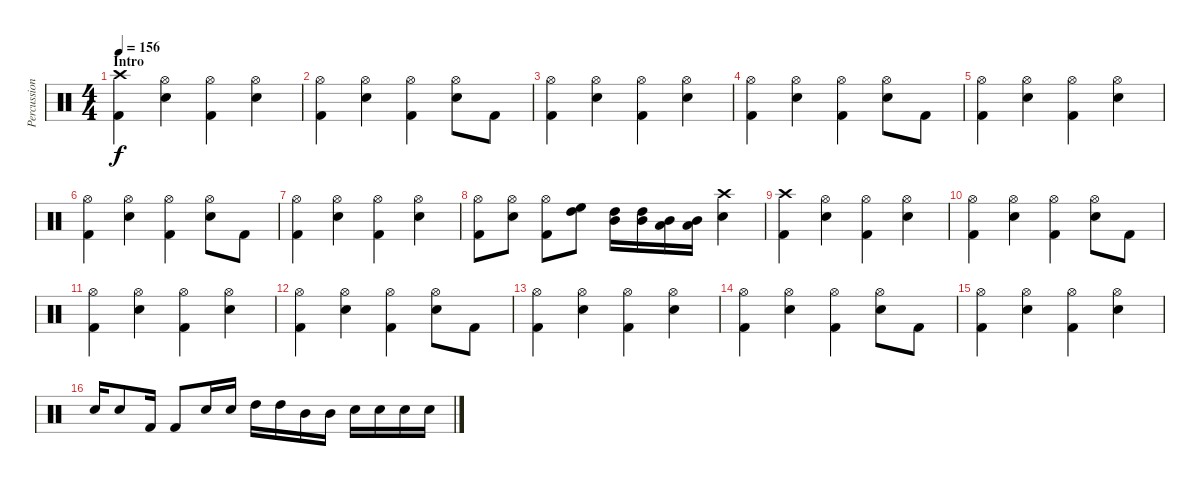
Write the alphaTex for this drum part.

\track ("Percussion" "Percussion") {instrument percussion}
\staff {score}
\articulation defaults
\ts (4 4)
\section ("" "Intro")
\tempo 156
\clef neutral
\ks c
("Crash high (hit)" "Kick (hit) 2").4{dy f} ("Hi-Hat (open)" "Electric Snare (hit)").4 ("Hi-Hat (open)" "Kick (hit) 2").4 ("Hi-Hat (open)" "Electric Snare (hit)").4 |
("Hi-Hat (open)" "Kick (hit) 2").4 ("Hi-Hat (open)" "Electric Snare (hit)").4 ("Hi-Hat (open)" "Kick (hit) 2").4 ("Hi-Hat (open)" "Electric Snare (hit)").8 "Kick (hit) 2".8 |
("Hi-Hat (open)" "Kick (hit) 2").4 ("Hi-Hat (open)" "Electric Snare (hit)").4 ("Hi-Hat (open)" "Kick (hit) 2").4 ("Hi-Hat (open)" "Electric Snare (hit)").4 |
("Hi-Hat (open)" "Kick (hit) 2").4 ("Hi-Hat (open)" "Electric Snare (hit)").4 ("Hi-Hat (open)" "Kick (hit) 2").4 ("Hi-Hat (open)" "Electric Snare (hit)").8 "Kick (hit) 2".8 |
("Hi-Hat (open)" "Kick (hit) 2").4 ("Hi-Hat (open)" "Electric Snare (hit)").4 ("Hi-Hat (open)" "Kick (hit) 2").4 ("Hi-Hat (open)" "Electric Snare (hit)").4 |
("Hi-Hat (open)" "Kick (hit) 2").4 ("Hi-Hat (open)" "Electric Snare (hit)").4 ("Hi-Hat (open)" "Kick (hit) 2").4 ("Hi-Hat (open)" "Electric Snare (hit)").8 "Kick (hit) 2".8 |
("Hi-Hat (open)" "Kick (hit) 2").4 ("Hi-Hat (open)" "Electric Snare (hit)").4 ("Hi-Hat (open)" "Kick (hit) 2").4 ("Hi-Hat (open)" "Electric Snare (hit)").4 |
("Hi-Hat (open)" "Kick (hit) 2").8 ("Hi-Hat (open)" "Electric Snare (hit)").8 ("Hi-Hat (open)" "Kick (hit) 2").8 ("High Floor Tom (hit)" "High Tom (hit)").8 ("High Tom (hit)" "Mid Tom (hit)").16 ("High Tom (hit)" "Mid Tom (hit)").16 ("Mid Tom (hit)" "Low Tom (hit)").16 ("Mid Tom (hit)" "Low Tom (hit)").16 ("Crash high (hit)" "Electric Snare (hit)").4 |
("Crash high (hit)" "Kick (hit) 2").4 ("Hi-Hat (open)" "Electric Snare (hit)").4 ("Hi-Hat (open)" "Kick (hit) 2").4 ("Hi-Hat (open)" "Electric Snare (hit)").4 |
("Hi-Hat (open)" "Kick (hit) 2").4 ("Hi-Hat (open)" "Electric Snare (hit)").4 ("Hi-Hat (open)" "Kick (hit) 2").4 ("Hi-Hat (open)" "Electric Snare (hit)").8 "Kick (hit) 2".8 |
("Hi-Hat (open)" "Kick (hit) 2").4 ("Hi-Hat (open)" "Electric Snare (hit)").4 ("Hi-Hat (open)" "Kick (hit) 2").4 ("Hi-Hat (open)" "Electric Snare (hit)").4 |
("Hi-Hat (open)" "Kick (hit) 2").4 ("Hi-Hat (open)" "Electric Snare (hit)").4 ("Hi-Hat (open)" "Kick (hit) 2").4 ("Hi-Hat (open)" "Electric Snare (hit)").8 "Kick (hit) 2".8 |
("Hi-Hat (open)" "Kick (hit) 2").4 ("Hi-Hat (open)" "Electric Snare (hit)").4 ("Hi-Hat (open)" "Kick (hit) 2").4 ("Hi-Hat (open)" "Electric Snare (hit)").4 |
("Hi-Hat (open)" "Kick (hit) 2").4 ("Hi-Hat (open)" "Electric Snare (hit)").4 ("Hi-Hat (open)" "Kick (hit) 2").4 ("Hi-Hat (open)" "Electric Snare (hit)").8 "Kick (hit) 2".8 |
("Hi-Hat (open)" "Kick (hit) 2").4 ("Hi-Hat (open)" "Electric Snare (hit)").4 ("Hi-Hat (open)" "Kick (hit) 2").4 ("Hi-Hat (open)" "Electric Snare (hit)").4 |
"Electric Snare (hit)".16 "Electric Snare (hit)".8 "Kick (hit) 2".16 "Kick (hit) 2".8 "Electric Snare (hit)".16 "Electric Snare (hit)".16 "High Tom (hit)".16 "High Tom (hit)".16 "Mid Tom (hit)".16 "Mid Tom (hit)".16 "Electric Snare (hit)".16 "Electric Snare (hit)".16 "Electric Snare (hit)".16 "Electric Snare (hit)".16
